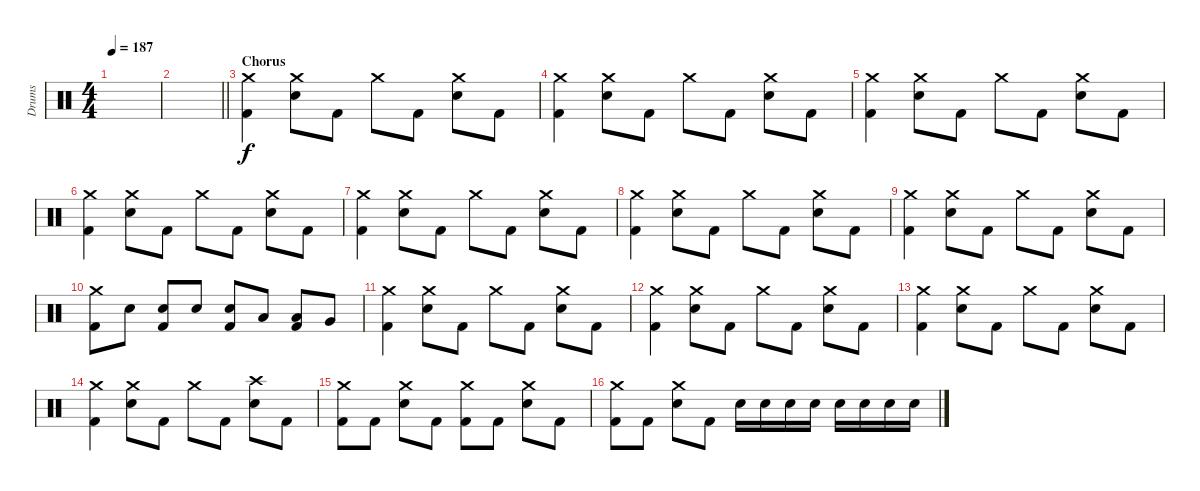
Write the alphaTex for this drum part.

\track ("Drums" "Drums") {instrument percussion}
\staff {score}
\articulation defaults
\ts (4 4)
\tempo 187
\clef neutral
\ks c
|
\barLineRight lightlight
|
\section ("" "Chorus")
("Crash medium (hit)" "Kick (hit) 2").4 ("Crash medium (hit)" "Electric Snare (hit)").8 "Kick (hit) 2".8 "Crash medium (hit)".8 "Kick (hit) 2".8 ("Crash medium (hit)" "Electric Snare (hit)").8 "Kick (hit) 2".8 |
("Crash medium (hit)" "Kick (hit) 2").4 ("Crash medium (hit)" "Electric Snare (hit)").8 "Kick (hit) 2".8 "Crash medium (hit)".8 "Kick (hit) 2".8 ("Crash medium (hit)" "Electric Snare (hit)").8 "Kick (hit) 2".8 |
("Crash medium (hit)" "Kick (hit) 2").4 ("Crash medium (hit)" "Electric Snare (hit)").8 "Kick (hit) 2".8 "Crash medium (hit)".8 "Kick (hit) 2".8 ("Crash medium (hit)" "Electric Snare (hit)").8 "Kick (hit) 2".8 |
("Crash medium (hit)" "Kick (hit) 2").4 ("Crash medium (hit)" "Electric Snare (hit)").8 "Kick (hit) 2".8 "Crash medium (hit)".8 "Kick (hit) 2".8 ("Crash medium (hit)" "Electric Snare (hit)").8 "Kick (hit) 2".8 |
("Crash medium (hit)" "Kick (hit) 2").4 ("Crash medium (hit)" "Electric Snare (hit)").8 "Kick (hit) 2".8 "Crash medium (hit)".8 "Kick (hit) 2".8 ("Crash medium (hit)" "Electric Snare (hit)").8 "Kick (hit) 2".8 |
("Crash medium (hit)" "Kick (hit) 2").4 ("Crash medium (hit)" "Electric Snare (hit)").8 "Kick (hit) 2".8 "Crash medium (hit)".8 "Kick (hit) 2".8 ("Crash medium (hit)" "Electric Snare (hit)").8 "Kick (hit) 2".8 |
("Crash medium (hit)" "Kick (hit) 2").4 ("Crash medium (hit)" "Electric Snare (hit)").8 "Kick (hit) 2".8 "Crash medium (hit)".8 "Kick (hit) 2".8 ("Crash medium (hit)" "Electric Snare (hit)").8 "Kick (hit) 2".8 |
("Crash medium (hit)" "Kick (hit) 2").8 "Electric Snare (hit)".8 ("Electric Snare (hit)" "Kick (hit) 2").8 "Electric Snare (hit)".8 ("Electric Snare (hit)" "Kick (hit) 2").8 "Low Tom (hit)".8 ("Low Tom (hit)" "Kick (hit) 2").8 "Very Low Tom (hit)".8 |
("Crash medium (hit)" "Kick (hit) 2").4 ("Crash medium (hit)" "Electric Snare (hit)").8 "Kick (hit) 2".8 "Crash medium (hit)".8 "Kick (hit) 2".8 ("Crash medium (hit)" "Electric Snare (hit)").8 "Kick (hit) 2".8 |
("Crash medium (hit)" "Kick (hit) 2").4 ("Crash medium (hit)" "Electric Snare (hit)").8 "Kick (hit) 2".8 "Crash medium (hit)".8 "Kick (hit) 2".8 ("Crash medium (hit)" "Electric Snare (hit)").8 "Kick (hit) 2".8 |
("Crash medium (hit)" "Kick (hit) 2").4 ("Crash medium (hit)" "Electric Snare (hit)").8 "Kick (hit) 2".8 "Crash medium (hit)".8 "Kick (hit) 2".8 ("Crash medium (hit)" "Electric Snare (hit)").8 "Kick (hit) 2".8 |
("Crash medium (hit)" "Kick (hit) 2").4 ("Crash medium (hit)" "Electric Snare (hit)").8 "Kick (hit) 2".8 "Crash medium (hit)".8 "Kick (hit) 2".8 ("Crash high (hit)" "Electric Snare (hit)").8 "Kick (hit) 2".8 |
("Crash medium (hit)" "Kick (hit) 2").8 "Kick (hit) 2".8 ("Crash medium (hit)" "Electric Snare (hit)").8 "Kick (hit) 2".8 ("Crash medium (hit)" "Kick (hit) 2").8 "Kick (hit) 2".8 ("Crash medium (hit)" "Electric Snare (hit)").8 "Kick (hit) 2".8 |
("Crash medium (hit)" "Kick (hit) 2").8 "Kick (hit) 2".8 ("Crash medium (hit)" "Electric Snare (hit)").8 "Kick (hit) 2".8 "Electric Snare (hit)".16 "Electric Snare (hit)".16 "Electric Snare (hit)".16 "Electric Snare (hit)".16 "Electric Snare (hit)".16 "Electric Snare (hit)".16 "Electric Snare (hit)".16 "Electric Snare (hit)".16
